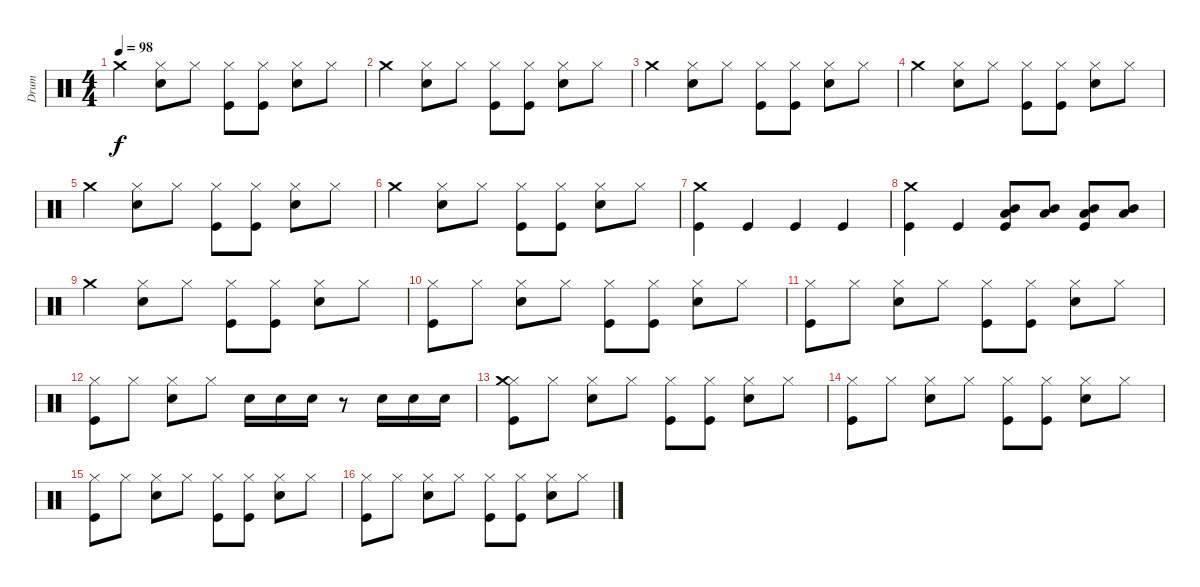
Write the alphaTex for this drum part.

\track ("Drum" "Drum") {instrument percussion}
\staff {score}
\articulation defaults
\ts (4 4)
\tempo 98
\clef neutral
\ks c "Crash medium (hit)".4{dy f}
("Hi-Hat (closed)" "Electric Snare (hit)").8 "Hi-Hat (closed)".8 ("Hi-Hat (closed)" "Kick (hit)").8 ("Hi-Hat (closed)" "Kick (hit)").8 ("Hi-Hat (closed)" "Electric Snare (hit)").8 "Hi-Hat (closed)".8 |
"Crash medium (hit)".4 ("Hi-Hat (closed)" "Electric Snare (hit)").8 "Hi-Hat (closed)".8 ("Hi-Hat (closed)" "Kick (hit)").8 ("Hi-Hat (closed)" "Kick (hit)").8 ("Hi-Hat (closed)" "Electric Snare (hit)").8 "Hi-Hat (closed)".8 |
"Crash medium (hit)".4 ("Hi-Hat (closed)" "Electric Snare (hit)").8 "Hi-Hat (closed)".8 ("Hi-Hat (closed)" "Kick (hit)").8 ("Hi-Hat (closed)" "Kick (hit)").8 ("Hi-Hat (closed)" "Electric Snare (hit)").8 "Hi-Hat (closed)".8 |
"Crash medium (hit)".4 ("Hi-Hat (closed)" "Electric Snare (hit)").8 "Hi-Hat (closed)".8 ("Hi-Hat (closed)" "Kick (hit)").8 ("Hi-Hat (closed)" "Kick (hit)").8 ("Hi-Hat (closed)" "Electric Snare (hit)").8 "Hi-Hat (closed)".8 |
"Crash medium (hit)".4 ("Hi-Hat (closed)" "Electric Snare (hit)").8 "Hi-Hat (closed)".8 ("Hi-Hat (closed)" "Kick (hit)").8 ("Hi-Hat (closed)" "Kick (hit)").8 ("Hi-Hat (closed)" "Electric Snare (hit)").8 "Hi-Hat (closed)".8 |
"Crash medium (hit)".4 ("Hi-Hat (closed)" "Electric Snare (hit)").8 "Hi-Hat (closed)".8 ("Hi-Hat (closed)" "Kick (hit)").8 ("Hi-Hat (closed)" "Kick (hit)").8 ("Hi-Hat (closed)" "Electric Snare (hit)").8 "Hi-Hat (closed)".8 |
("Crash medium (hit)" "Kick (hit)").4 "Kick (hit)".4 "Kick (hit)".4 "Kick (hit)".4 |
("Crash medium (hit)" "Kick (hit)").4 "Kick (hit)".4 ("Kick (hit)" "Low Tom (hit)" "Mid Tom (hit)").8 ("Low Tom (hit)" "Mid Tom (hit)").8 ("Kick (hit)" "Low Tom (hit)" "Mid Tom (hit)").8 ("Low Tom (hit)" "Mid Tom (hit)").8 |
"Crash medium (hit)".4 ("Hi-Hat (closed)" "Electric Snare (hit)").8 "Hi-Hat (closed)".8 ("Hi-Hat (closed)" "Kick (hit)").8 ("Hi-Hat (closed)" "Kick (hit)").8 ("Hi-Hat (closed)" "Electric Snare (hit)").8 "Hi-Hat (closed)".8 |
("Hi-Hat (closed)" "Kick (hit)").8 "Hi-Hat (closed)".8 ("Hi-Hat (closed)" "Electric Snare (hit)").8 "Hi-Hat (closed)".8 ("Hi-Hat (closed)" "Kick (hit)").8 ("Hi-Hat (closed)" "Kick (hit)").8 ("Hi-Hat (closed)" "Electric Snare (hit)").8 "Hi-Hat (closed)".8 |
("Hi-Hat (closed)" "Kick (hit)").8 "Hi-Hat (closed)".8 ("Hi-Hat (closed)" "Electric Snare (hit)").8 "Hi-Hat (closed)".8 ("Hi-Hat (closed)" "Kick (hit)").8 ("Hi-Hat (closed)" "Kick (hit)").8 ("Hi-Hat (closed)" "Electric Snare (hit)").8 "Hi-Hat (closed)".8 |
("Hi-Hat (closed)" "Kick (hit)").8 "Hi-Hat (closed)".8 ("Hi-Hat (closed)" "Electric Snare (hit)").8 "Hi-Hat (closed)".8 "Electric Snare (hit)".16 "Electric Snare (hit)".16 "Electric Snare (hit)".16 r.8 "Electric Snare (hit)".16 "Electric Snare (hit)".16 "Electric Snare (hit)".16 |
("Hi-Hat (closed)" "Kick (hit)" "Crash medium (hit)").8 "Hi-Hat (closed)".8 ("Hi-Hat (closed)" "Snare (hit) 2").8 "Hi-Hat (closed)".8 ("Hi-Hat (closed)" "Kick (hit)").8 ("Hi-Hat (closed)" "Kick (hit)").8 ("Hi-Hat (closed)" "Snare (hit) 2").8 "Hi-Hat (closed)".8 |
("Hi-Hat (closed)" "Kick (hit)").8 "Hi-Hat (closed)".8 ("Hi-Hat (closed)" "Snare (hit) 2").8 "Hi-Hat (closed)".8 ("Hi-Hat (closed)" "Kick (hit)").8 ("Hi-Hat (closed)" "Kick (hit)").8 ("Hi-Hat (closed)" "Snare (hit) 2").8 "Hi-Hat (closed)".8 |
("Hi-Hat (closed)" "Kick (hit)").8 "Hi-Hat (closed)".8 ("Hi-Hat (closed)" "Snare (hit) 2").8 "Hi-Hat (closed)".8 ("Hi-Hat (closed)" "Kick (hit)").8 ("Hi-Hat (closed)" "Kick (hit)").8 ("Hi-Hat (closed)" "Snare (hit) 2").8 "Hi-Hat (closed)".8 |
("Hi-Hat (closed)" "Kick (hit)").8 "Hi-Hat (closed)".8 ("Hi-Hat (closed)" "Snare (hit) 2").8 "Hi-Hat (closed)".8 ("Hi-Hat (closed)" "Kick (hit)").8 ("Hi-Hat (closed)" "Kick (hit)").8 ("Hi-Hat (closed)" "Snare (hit) 2").8 "Hi-Hat (closed)".8
